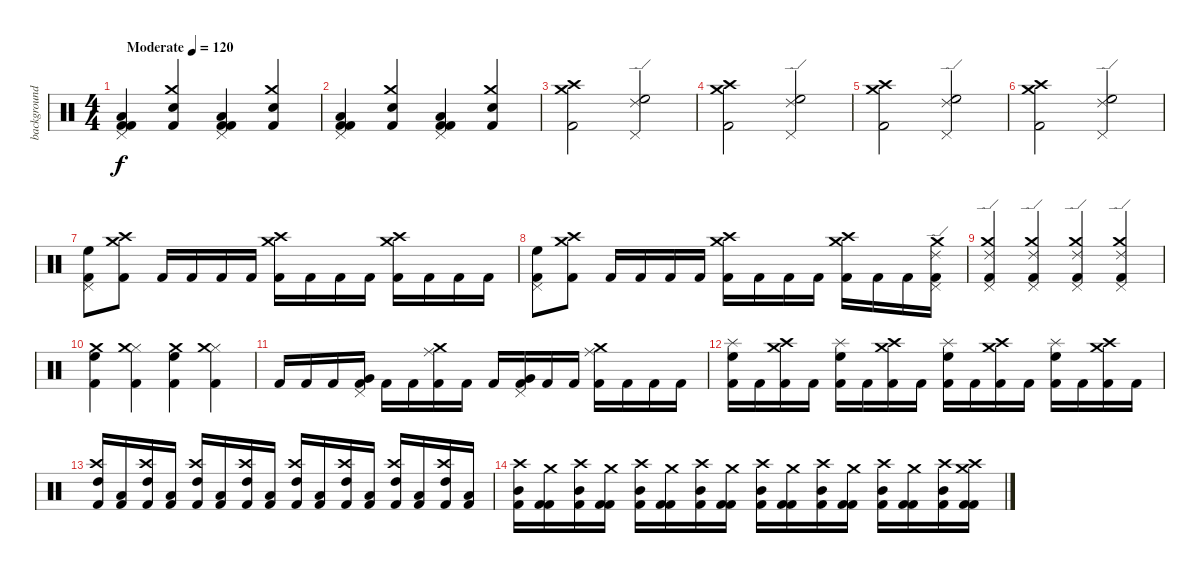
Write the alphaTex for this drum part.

\track ("background" "background") {instrument percussion}
\staff {score}
\articulation defaults
\ts (4 4)
\tempo (120 "Moderate")
\clef neutral
\ks c
("Kick (hit) 2" "Kick (hit) 2" "Low Tom (hit)" "Pedal Hi-Hat (hit)").4{dy f} ("Kick (hit) 2" "Crash medium (hit)" "Snare (hit) 2").4 ("Kick (hit) 2" "Kick (hit) 2" "Low Tom (hit)" "Pedal Hi-Hat (hit)").4 ("Kick (hit) 2" "Crash medium (hit)" "Snare (hit) 2").4 |
("Kick (hit) 2" "Kick (hit) 2" "Low Tom (hit)" "Pedal Hi-Hat (hit)").4 ("Kick (hit) 2" "Crash medium (hit)" "Snare (hit) 2").4 ("Kick (hit) 2" "Kick (hit) 2" "Low Tom (hit)" "Pedal Hi-Hat (hit)").4 ("Kick (hit) 2" "Crash medium (hit)" "Snare (hit) 2").4 |
("Crash high (hit)" "Crash medium (hit)" "Kick (hit) 2").2 ("Ride (edge) 2" "High Floor Tom (hit)" "Pedal Hi-Hat (hit)").2 |
("Crash high (hit)" "Crash medium (hit)" "Kick (hit) 2").2 ("Ride (edge) 2" "High Floor Tom (hit)" "Pedal Hi-Hat (hit)").2 |
("Crash high (hit)" "Crash medium (hit)" "Kick (hit) 2").2 ("Ride (edge) 2" "High Floor Tom (hit)" "Pedal Hi-Hat (hit)").2 |
("Crash high (hit)" "Crash medium (hit)" "Kick (hit) 2").2 ("Ride (edge) 2" "High Floor Tom (hit)" "Pedal Hi-Hat (hit)").2 |
("Pedal Hi-Hat (hit)" "High Floor Tom (hit)" "Kick (hit) 2").8 ("Crash high (hit)" "Crash medium (hit)" "Kick (hit) 2").8 "Kick (hit) 2".16 "Kick (hit) 2".16 "Kick (hit) 2".16 "Kick (hit) 2".16 ("Crash high (hit)" "Crash medium (hit)" "Kick (hit) 2").16 "Kick (hit) 2".16 "Kick (hit) 2".16 "Kick (hit) 2".16 ("Crash high (hit)" "Crash medium (hit)" "Kick (hit) 2").16 "Kick (hit) 2".16 "Kick (hit) 2".16 "Kick (hit) 2".16 |
("Pedal Hi-Hat (hit)" "High Floor Tom (hit)" "Kick (hit) 2").8 ("Crash high (hit)" "Crash medium (hit)" "Kick (hit) 2").8 "Kick (hit) 2".16 "Kick (hit) 2".16 "Kick (hit) 2".16 "Kick (hit) 2".16 ("Crash high (hit)" "Crash medium (hit)" "Kick (hit) 2").16 "Kick (hit) 2".16 "Kick (hit) 2".16 "Kick (hit) 2".16 ("Crash high (hit)" "Crash medium (hit)" "Kick (hit) 2").16 "Kick (hit) 2".16 "Kick (hit) 2".16 ("Pedal Hi-Hat (hit)" "Ride (edge) 2" "Crash medium (hit)" "Kick (hit) 2").16 |
("Pedal Hi-Hat (hit)" "Ride (edge) 2" "Crash medium (hit)" "Kick (hit) 2").4 ("Pedal Hi-Hat (hit)" "Ride (edge) 2" "Crash medium (hit)" "Kick (hit) 2").4 ("Pedal Hi-Hat (hit)" "Ride (edge) 2" "Crash medium (hit)" "Kick (hit) 2").4 ("Pedal Hi-Hat (hit)" "Ride (edge) 2" "Crash medium (hit)" "Kick (hit) 2").4 |
("High Floor Tom (hit)" "Crash medium (hit)" "Kick (hit) 2").4 ("Hi-Hat (closed)" "Crash medium (hit)" "Kick (hit) 2").4 ("High Floor Tom (hit)" "Crash medium (hit)" "Kick (hit) 2").4 ("Hi-Hat (closed)" "Crash medium (hit)" "Kick (hit) 2").4 |
"Kick (hit) 2".16 "Kick (hit) 2".16 "Kick (hit) 2".16 ("Pedal Hi-Hat (hit)" "Very Low Tom (hit)" "Kick (hit) 2").16 "Kick (hit) 2".16 "Kick (hit) 2".16 ("Crash medium (hit)" "Ride (middle)" "Kick (hit) 2").16 "Kick (hit) 2".16 "Kick (hit) 2".16 ("Pedal Hi-Hat (hit)" "Very Low Tom (hit)" "Kick (hit) 2").16 "Kick (hit) 2".16 "Kick (hit) 2".16 ("Crash medium (hit)" "Ride (middle)" "Kick (hit) 2").16 "Kick (hit) 2".16 "Kick (hit) 2".16 "Kick (hit) 2".16 |
("High Floor Tom (hit)" "Splash (hit)" "Kick (hit) 2").16 "Kick (hit) 2".16 ("Crash medium (hit)" "Crash high (hit)" "Kick (hit) 2").16 "Kick (hit) 2".16 ("High Floor Tom (hit)" "Splash (hit)" "Kick (hit) 2").16 "Kick (hit) 2".16 ("Crash medium (hit)" "Crash high (hit)" "Kick (hit) 2").16 "Kick (hit) 2".16 ("High Floor Tom (hit)" "Splash (hit)" "Kick (hit) 2").16 "Kick (hit) 2".16 ("Crash medium (hit)" "Crash high (hit)" "Kick (hit) 2").16 "Kick (hit) 2".16 ("Splash (hit)" "High Floor Tom (hit)" "Kick (hit) 2").16 "Kick (hit) 2".16 ("Crash medium (hit)" "Crash high (hit)" "Kick (hit) 2").16 "Kick (hit) 2".16 |
("High Tom (hit)" "Crash high (hit)" "Kick (hit) 2").16 ("Low Tom (hit)" "Kick (hit) 2").16 ("High Tom (hit)" "Crash high (hit)" "Kick (hit) 2").16 ("Low Tom (hit)" "Kick (hit) 2").16 ("High Tom (hit)" "Crash high (hit)" "Kick (hit) 2").16 ("Low Tom (hit)" "Kick (hit) 2").16 ("High Tom (hit)" "Crash high (hit)" "Kick (hit) 2").16 ("Low Tom (hit)" "Kick (hit) 2").16 ("High Tom (hit)" "Crash high (hit)" "Kick (hit) 2").16 ("Low Tom (hit)" "Kick (hit) 2").16 ("High Tom (hit)" "Crash high (hit)" "Kick (hit) 2").16 ("Low Tom (hit)" "Kick (hit) 2").16 ("High Tom (hit)" "Crash high (hit)" "Kick (hit) 2").16 ("Low Tom (hit)" "Kick (hit) 2").16 ("High Tom (hit)" "Crash high (hit)" "Kick (hit) 2").16 ("Low Tom (hit)" "Kick (hit) 2").16 |
("Mid Tom (hit)" "Crash high (hit)" "Kick (hit) 2").16 ("Kick (hit) 2" "Crash medium (hit)" "Kick (hit) 2").16 ("Mid Tom (hit)" "Crash high (hit)" "Kick (hit) 2").16 ("Kick (hit) 2" "Crash medium (hit)" "Kick (hit) 2").16 ("Mid Tom (hit)" "Crash high (hit)" "Kick (hit) 2").16 ("Kick (hit) 2" "Crash medium (hit)" "Kick (hit) 2").16 ("Mid Tom (hit)" "Crash high (hit)" "Kick (hit) 2").16 ("Kick (hit) 2" "Crash medium (hit)" "Kick (hit) 2").16 ("Mid Tom (hit)" "Crash high (hit)" "Kick (hit) 2").16 ("Kick (hit) 2" "Crash medium (hit)" "Kick (hit) 2").16 ("Mid Tom (hit)" "Crash high (hit)" "Kick (hit) 2").16 ("Kick (hit) 2" "Crash medium (hit)" "Kick (hit) 2").16 ("Mid Tom (hit)" "Crash high (hit)" "Kick (hit) 2").16 ("Kick (hit) 2" "Crash medium (hit)" "Kick (hit) 2").16 ("Mid Tom (hit)" "Crash high (hit)" "Kick (hit) 2").16 ("Crash high (hit)" "Kick (hit) 2" "Crash medium (hit)" "Kick (hit) 2").16
